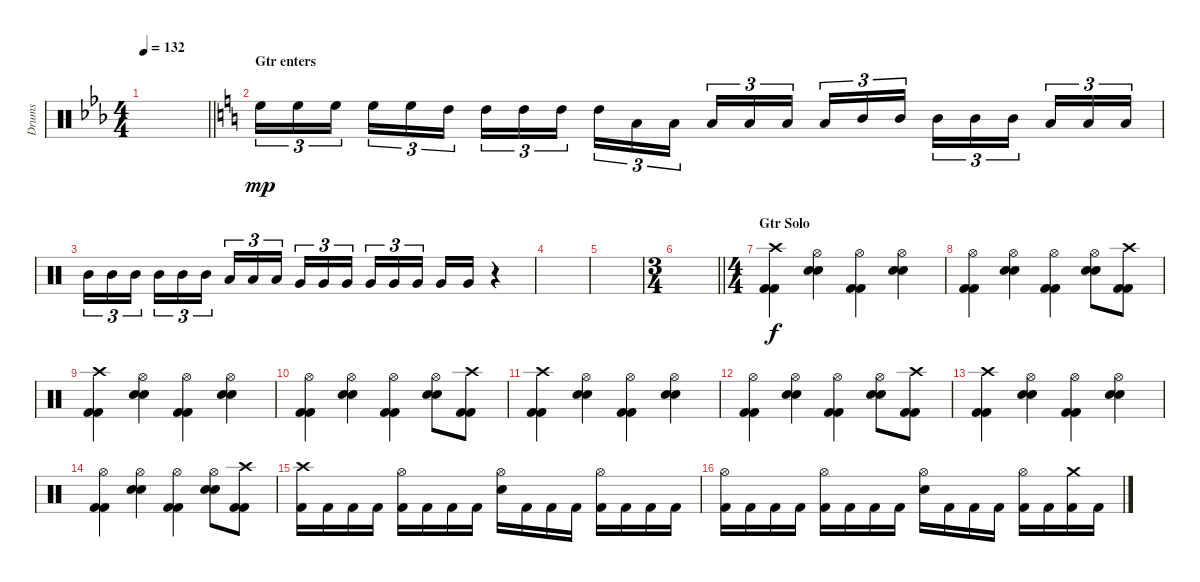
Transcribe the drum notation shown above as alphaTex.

\track ("Drums" "Drums") {instrument percussion}
\staff {score}
\articulation defaults
\ts (4 4)
\tempo 132
\clef neutral
\barLineRight lightlight
\ks eb
|
\section ("" "Gtr enters")
\ks c "High Floor Tom (hit)".16{tu (3 2) dy mp} "High Floor Tom (hit)".16{tu (3 2)} "High Floor Tom (hit)".16{tu (3 2)} "High Floor Tom (hit)".16{tu (3 2)} "High Floor Tom (hit)".16{tu (3 2)} "High Tom (hit)".16{tu (3 2)} "High Tom (hit)".16{tu (3 2)} "High Tom (hit)".16{tu (3 2)} "High Tom (hit)".16{tu (3 2)} "High Tom (hit)".16{tu (3 2)} "Low Tom (hit)".16{tu (3 2)} "Low Tom (hit)".16{tu (3 2)} "Low Tom (hit)".16{tu (3 2)} "Low Tom (hit)".16{tu (3 2)} "Low Tom (hit)".16{tu (3 2)} "Low Tom (hit)".16{tu (3 2)} "Mid Tom (hit)".16{tu (3 2)} "Mid Tom (hit)".16{tu (3 2)} "Mid Tom (hit)".16{tu (3 2)} "Mid Tom (hit)".16{tu (3 2)} "Mid Tom (hit)".16{tu (3 2)} "Low Tom (hit)".16{tu (3 2)} "Low Tom (hit)".16{tu (3 2)} "Low Tom (hit)".16{tu (3 2)}
|
"Mid Tom (hit)".16{tu (3 2)} "Mid Tom (hit)".16{tu (3 2)} "Mid Tom (hit)".16{tu (3 2)} "Mid Tom (hit)".16{tu (3 2)} "Mid Tom (hit)".16{tu (3 2)} "Mid Tom (hit)".16{tu (3 2)} "Low Tom (hit)".16{tu (3 2)} "Low Tom (hit)".16{tu (3 2)} "Low Tom (hit)".16{tu (3 2)} "Very Low Tom (hit)".16{tu (3 2)} "Very Low Tom (hit)".16{tu (3 2)} "Very Low Tom (hit)".16{tu (3 2)} "Very Low Tom (hit)".16{tu (3 2)} "Very Low Tom (hit)".16{tu (3 2)} "Very Low Tom (hit)".16{tu (3 2)} "Very Low Tom (hit)".16 "Very Low Tom (hit)".16 r.4 |
|
|
\ts (3 4)
\barLineRight lightlight
|
\ts (4 4)
\section ("" "Gtr Solo")
("Crash high (hit)" "Kick (hit) 2" "Kick (hit) 2").4{dy f} ("Hi-Hat (open)" "Snare (hit) 2" "Snare (hit) 2").4 ("Hi-Hat (open)" "Kick (hit) 2" "Kick (hit) 2").4 ("Hi-Hat (open)" "Snare (hit) 2" "Snare (hit) 2").4 |
("Hi-Hat (open)" "Kick (hit) 2" "Kick (hit) 2").4 ("Hi-Hat (open)" "Snare (hit) 2" "Snare (hit) 2").4 ("Hi-Hat (open)" "Kick (hit) 2" "Kick (hit) 2").4 ("Hi-Hat (open)" "Snare (hit) 2" "Snare (hit) 2").8 ("Crash high (hit)" "Kick (hit) 2" "Kick (hit) 2").8 |
("Crash high (hit)" "Kick (hit) 2" "Kick (hit) 2").4 ("Hi-Hat (open)" "Snare (hit) 2" "Snare (hit) 2").4 ("Hi-Hat (open)" "Kick (hit) 2" "Kick (hit) 2").4 ("Hi-Hat (open)" "Snare (hit) 2" "Snare (hit) 2").4 |
("Hi-Hat (open)" "Kick (hit) 2" "Kick (hit) 2").4 ("Hi-Hat (open)" "Snare (hit) 2" "Snare (hit) 2").4 ("Hi-Hat (open)" "Kick (hit) 2" "Kick (hit) 2").4 ("Hi-Hat (open)" "Snare (hit) 2" "Snare (hit) 2").8 ("Crash high (hit)" "Kick (hit) 2" "Kick (hit) 2").8 |
("Crash high (hit)" "Kick (hit) 2" "Kick (hit) 2").4 ("Hi-Hat (open)" "Snare (hit) 2" "Snare (hit) 2").4 ("Hi-Hat (open)" "Kick (hit) 2" "Kick (hit) 2").4 ("Hi-Hat (open)" "Snare (hit) 2" "Snare (hit) 2").4 |
("Hi-Hat (open)" "Kick (hit) 2" "Kick (hit) 2").4 ("Hi-Hat (open)" "Snare (hit) 2" "Snare (hit) 2").4 ("Hi-Hat (open)" "Kick (hit) 2" "Kick (hit) 2").4 ("Hi-Hat (open)" "Snare (hit) 2" "Snare (hit) 2").8 ("Crash high (hit)" "Kick (hit) 2" "Kick (hit) 2").8 |
("Crash high (hit)" "Kick (hit) 2" "Kick (hit) 2").4 ("Hi-Hat (open)" "Snare (hit) 2" "Snare (hit) 2").4 ("Hi-Hat (open)" "Kick (hit) 2" "Kick (hit) 2").4 ("Hi-Hat (open)" "Snare (hit) 2" "Snare (hit) 2").4 |
("Hi-Hat (open)" "Kick (hit) 2" "Kick (hit) 2").4 ("Hi-Hat (open)" "Snare (hit) 2" "Snare (hit) 2").4 ("Hi-Hat (open)" "Kick (hit) 2" "Kick (hit) 2").4 ("Hi-Hat (open)" "Snare (hit) 2" "Snare (hit) 2").8 ("Crash high (hit)" "Kick (hit) 2" "Kick (hit) 2").8 |
("Crash high (hit)" "Kick (hit) 2").16 "Kick (hit) 2".16 "Kick (hit) 2".16 "Kick (hit) 2".16 ("Hi-Hat (open)" "Kick (hit) 2").16 "Kick (hit) 2".16 "Kick (hit) 2".16 "Kick (hit) 2".16 ("Hi-Hat (open)" "Snare (hit) 2").16 "Kick (hit) 2".16 "Kick (hit) 2".16 "Kick (hit) 2".16 ("Hi-Hat (open)" "Kick (hit) 2").16 "Kick (hit) 2".16 "Kick (hit) 2".16 "Kick (hit) 2".16 |
("Hi-Hat (open)" "Kick (hit) 2").16 "Kick (hit) 2".16 "Kick (hit) 2".16 "Kick (hit) 2".16 ("Hi-Hat (open)" "Kick (hit) 2").16 "Kick (hit) 2".16 "Kick (hit) 2".16 "Kick (hit) 2".16 ("Hi-Hat (open)" "Snare (hit) 2").16 "Kick (hit) 2".16 "Kick (hit) 2".16 "Kick (hit) 2".16 ("Hi-Hat (open)" "Kick (hit) 2").16 "Kick (hit) 2".16 ("Crash medium (hit)" "Kick (hit) 2").16 "Kick (hit) 2".16
